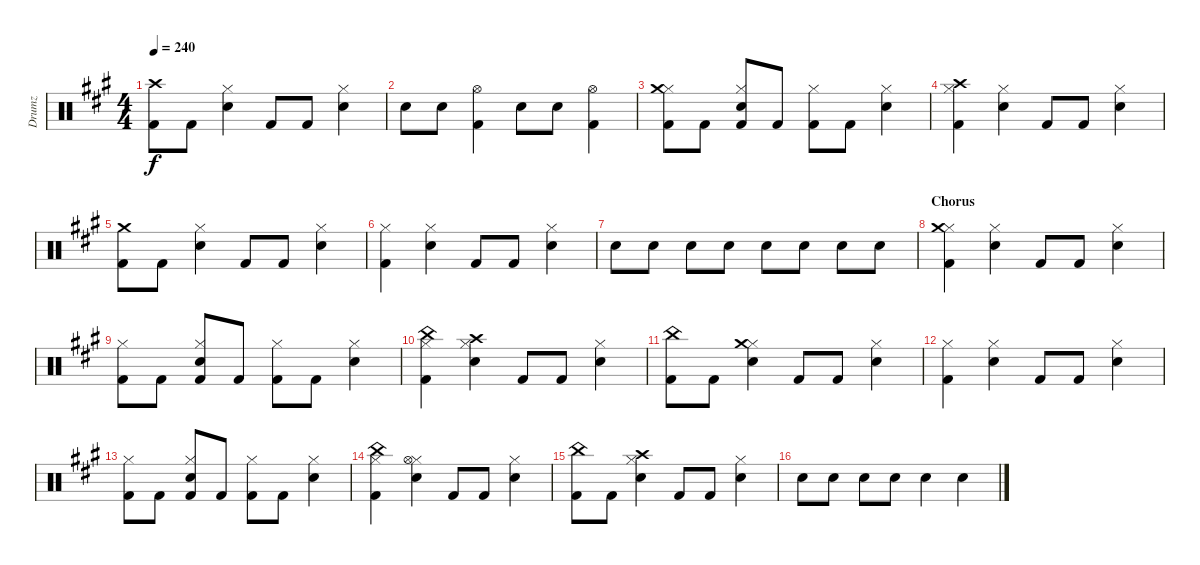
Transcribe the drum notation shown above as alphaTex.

\track ("Drumz" "Drumz") {instrument percussion}
\staff {score}
\articulation defaults
\ts (4 4)
\tempo 240
\clef neutral
\ks a
("Kick (hit) 2" "Crash high (hit)").8{dy f} "Kick (hit) 2".8 ("Hi-Hat (closed)" "Electric Snare (hit)").4 "Kick (hit) 2".8 "Kick (hit) 2".8 ("Electric Snare (hit)" "Hi-Hat (closed)").4 |
"Electric Snare (hit)".8 "Electric Snare (hit)".8 ("Hi-Hat (open)" "Kick (hit) 2").4 "Electric Snare (hit)".8 "Electric Snare (hit)".8 ("Hi-Hat (open)" "Kick (hit) 2").4 |
("Hi-Hat (closed)" "Crash medium (hit)" "Kick (hit) 2").8 "Kick (hit) 2".8 ("Hi-Hat (closed)" "Electric Snare (hit)" "Kick (hit) 2").8 "Kick (hit) 2".8 ("Hi-Hat (closed)" "Kick (hit) 2").8 "Kick (hit) 2".8 ("Hi-Hat (closed)" "Electric Snare (hit)").4 |
("Hi-Hat (closed)" "Crash high (hit)" "Kick (hit) 2").4 ("Hi-Hat (closed)" "Electric Snare (hit)").4 "Kick (hit) 2".8 "Kick (hit) 2".8 ("Electric Snare (hit)" "Hi-Hat (closed)").4 |
("Kick (hit) 2" "Crash medium (hit)").8 "Kick (hit) 2".8 ("Hi-Hat (closed)" "Electric Snare (hit)").4 "Kick (hit) 2".8 "Kick (hit) 2".8 ("Electric Snare (hit)" "Hi-Hat (closed)").4 |
("Hi-Hat (closed)" "Kick (hit) 2").4 ("Hi-Hat (closed)" "Electric Snare (hit)").4 "Kick (hit) 2".8 "Kick (hit) 2".8 ("Electric Snare (hit)" "Hi-Hat (closed)").4 |
"Electric Snare (hit)".8 "Electric Snare (hit)".8 "Electric Snare (hit)".8 "Electric Snare (hit)".8 "Electric Snare (hit)".8 "Electric Snare (hit)".8 "Electric Snare (hit)".8 "Electric Snare (hit)".8 |
\section ("" "Chorus")
("Hi-Hat (closed)" "Crash medium (hit)" "Kick (hit) 2").4 ("Hi-Hat (closed)" "Electric Snare (hit)").4 "Kick (hit) 2".8 "Kick (hit) 2".8 ("Electric Snare (hit)" "Hi-Hat (closed)").4 |
("Hi-Hat (closed)" "Kick (hit) 2").8 "Kick (hit) 2".8 ("Hi-Hat (closed)" "Electric Snare (hit)" "Kick (hit) 2").8 "Kick (hit) 2".8 ("Hi-Hat (closed)" "Kick (hit) 2").8 "Kick (hit) 2".8 ("Hi-Hat (closed)" "Electric Snare (hit)").4 |
("Hi-Hat (closed)" "China (hit)" "Kick (hit) 2").4 ("Hi-Hat (closed)" "Crash high (hit)" "Electric Snare (hit)").4 "Kick (hit) 2".8 "Kick (hit) 2".8 ("Electric Snare (hit)" "Hi-Hat (closed)").4 |
("Kick (hit) 2" "China (hit)").8 "Kick (hit) 2".8 ("Hi-Hat (closed)" "Electric Snare (hit)" "Crash medium (hit)").4 "Kick (hit) 2".8 "Kick (hit) 2".8 ("Electric Snare (hit)" "Hi-Hat (closed)").4 |
("Hi-Hat (closed)" "Kick (hit) 2").4 ("Hi-Hat (closed)" "Electric Snare (hit)").4 "Kick (hit) 2".8 "Kick (hit) 2".8 ("Electric Snare (hit)" "Hi-Hat (closed)").4 |
("Hi-Hat (closed)" "Kick (hit) 2").8 "Kick (hit) 2".8 ("Hi-Hat (closed)" "Electric Snare (hit)" "Kick (hit) 2").8 "Kick (hit) 2".8 ("Hi-Hat (closed)" "Kick (hit) 2").8 "Kick (hit) 2".8 ("Hi-Hat (closed)" "Electric Snare (hit)").4 |
("Hi-Hat (closed)" "China (hit)" "Kick (hit) 2").4 ("Hi-Hat (closed)" "Hi-Hat (open)" "Electric Snare (hit)").4 "Kick (hit) 2".8 "Kick (hit) 2".8 ("Electric Snare (hit)" "Hi-Hat (closed)").4 |
("Kick (hit) 2" "China (hit)").8 "Kick (hit) 2".8 ("Hi-Hat (closed)" "Electric Snare (hit)" "Crash high (hit)").4 "Kick (hit) 2".8 "Kick (hit) 2".8 ("Electric Snare (hit)" "Hi-Hat (closed)").4 |
"Electric Snare (hit)".8 "Electric Snare (hit)".8 "Electric Snare (hit)".8 "Electric Snare (hit)".8 "Electric Snare (hit)".4 "Electric Snare (hit)".4
